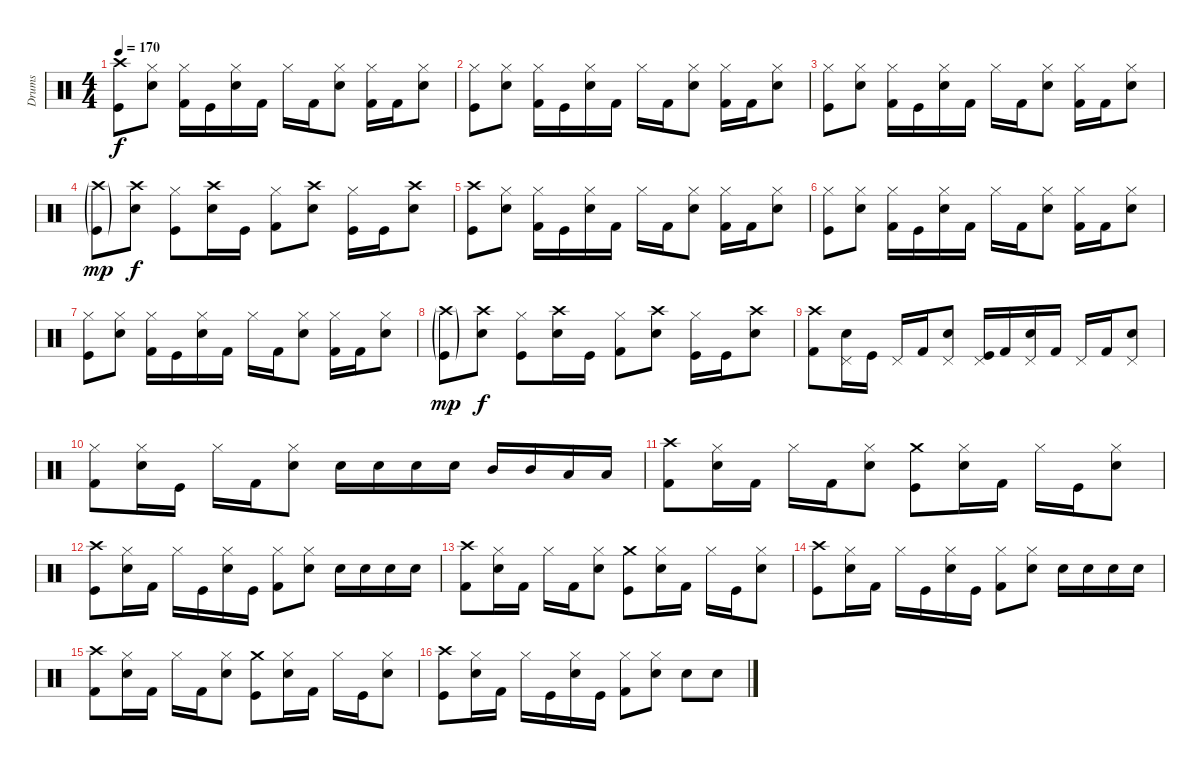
\track ("Drums" "Drums") {instrument percussion}
\staff {score}
\articulation defaults
\ts (4 4)
\tempo 170
\clef neutral
\ks c
("Crash high (hit)" "Kick (hit)").8{dy f} ("Hi-Hat (closed)" "Electric Snare (hit)").8 ("Hi-Hat (closed)" "Kick (hit) 2").16 "Kick (hit)".16 ("Hi-Hat (closed)" "Electric Snare (hit)").16 "Kick (hit) 2".16 "Hi-Hat (closed)".16 "Kick (hit) 2".16 ("Hi-Hat (closed)" "Electric Snare (hit)").8 ("Hi-Hat (closed)" "Kick (hit) 2").16 "Kick (hit) 2".16 ("Hi-Hat (closed)" "Electric Snare (hit)").8 |
("Hi-Hat (closed)" "Kick (hit)").8 ("Hi-Hat (closed)" "Electric Snare (hit)").8 ("Hi-Hat (closed)" "Kick (hit) 2").16 "Kick (hit)".16 ("Hi-Hat (closed)" "Electric Snare (hit)").16 "Kick (hit) 2".16 "Hi-Hat (closed)".16 "Kick (hit) 2".16 ("Hi-Hat (closed)" "Electric Snare (hit)").8 ("Hi-Hat (closed)" "Kick (hit) 2").16 "Kick (hit) 2".16 ("Hi-Hat (closed)" "Electric Snare (hit)").8 |
("Hi-Hat (closed)" "Kick (hit)").8 ("Hi-Hat (closed)" "Electric Snare (hit)").8 ("Hi-Hat (closed)" "Kick (hit) 2").16 "Kick (hit)".16 ("Hi-Hat (closed)" "Electric Snare (hit)").16 "Kick (hit) 2".16 "Hi-Hat (closed)".16 "Kick (hit) 2".16 ("Hi-Hat (closed)" "Electric Snare (hit)").8 ("Hi-Hat (closed)" "Kick (hit) 2").16 "Kick (hit) 2".16 ("Hi-Hat (closed)" "Electric Snare (hit)").8 |
("Crash high (hit)"{g} "Kick (hit)"{g}).8{dy mp} ("Crash high (hit)" "Electric Snare (hit)").8{dy f} ("Hi-Hat (closed)" "Kick (hit)").8 ("Crash high (hit)" "Electric Snare (hit)").16 "Kick (hit)".16 ("Hi-Hat (closed)" "Kick (hit) 2").8 ("Crash high (hit)" "Electric Snare (hit)").8 ("Hi-Hat (closed)" "Kick (hit)").16 "Kick (hit)".16 ("Crash high (hit)" "Electric Snare (hit)").8 |
("Crash high (hit)" "Kick (hit)").8 ("Hi-Hat (closed)" "Electric Snare (hit)").8 ("Hi-Hat (closed)" "Kick (hit) 2").16 "Kick (hit)".16 ("Hi-Hat (closed)" "Electric Snare (hit)").16 "Kick (hit) 2".16 "Hi-Hat (closed)".16 "Kick (hit) 2".16 ("Hi-Hat (closed)" "Electric Snare (hit)").8 ("Hi-Hat (closed)" "Kick (hit) 2").16 "Kick (hit) 2".16 ("Hi-Hat (closed)" "Electric Snare (hit)").8 |
("Hi-Hat (closed)" "Kick (hit)").8 ("Hi-Hat (closed)" "Electric Snare (hit)").8 ("Hi-Hat (closed)" "Kick (hit) 2").16 "Kick (hit)".16 ("Hi-Hat (closed)" "Electric Snare (hit)").16 "Kick (hit) 2".16 "Hi-Hat (closed)".16 "Kick (hit) 2".16 ("Hi-Hat (closed)" "Electric Snare (hit)").8 ("Hi-Hat (closed)" "Kick (hit) 2").16 "Kick (hit) 2".16 ("Hi-Hat (closed)" "Electric Snare (hit)").8 |
("Hi-Hat (closed)" "Kick (hit)").8 ("Hi-Hat (closed)" "Electric Snare (hit)").8 ("Hi-Hat (closed)" "Kick (hit) 2").16 "Kick (hit)".16 ("Hi-Hat (closed)" "Electric Snare (hit)").16 "Kick (hit) 2".16 "Hi-Hat (closed)".16 "Kick (hit) 2".16 ("Hi-Hat (closed)" "Electric Snare (hit)").8 ("Hi-Hat (closed)" "Kick (hit) 2").16 "Kick (hit) 2".16 ("Hi-Hat (closed)" "Electric Snare (hit)").8 |
("Crash high (hit)"{g} "Kick (hit)"{g}).8{dy mp} ("Crash high (hit)" "Electric Snare (hit)").8{dy f} ("Hi-Hat (closed)" "Kick (hit)").8 ("Crash high (hit)" "Electric Snare (hit)").16 "Kick (hit)".16 ("Hi-Hat (closed)" "Kick (hit) 2").8 ("Crash high (hit)" "Electric Snare (hit)").8 ("Hi-Hat (closed)" "Kick (hit)").16 "Kick (hit)".16 ("Crash high (hit)" "Electric Snare (hit)").8 |
("Crash high (hit)" "Kick (hit) 2").8 ("Pedal Hi-Hat (hit)" "Electric Snare (hit)").16 "Kick (hit)".16 "Pedal Hi-Hat (hit)".16 "Kick (hit) 2".16 ("Pedal Hi-Hat (hit)" "Electric Snare (hit)").8 ("Pedal Hi-Hat (hit)" "Kick (hit)").16 "Kick (hit) 2".16 ("Pedal Hi-Hat (hit)" "Electric Snare (hit)").16 "Kick (hit) 2".16 "Pedal Hi-Hat (hit)".16 "Kick (hit) 2".16 ("Pedal Hi-Hat (hit)" "Electric Snare (hit)").8 |
("Hi-Hat (closed)" "Kick (hit) 2").8 ("Hi-Hat (closed)" "Electric Snare (hit)").16 "Kick (hit)".16 "Hi-Hat (closed)".16 "Kick (hit) 2".16 ("Hi-Hat (closed)" "Electric Snare (hit)").8 "Electric Snare (hit)".16 "Electric Snare (hit)".16 "Electric Snare (hit)".16 "Electric Snare (hit)".16 "Mid Tom (hit)".16 "Mid Tom (hit)".16 "Low Tom (hit)".16 "Low Tom (hit)".16 |
("Crash high (hit)" "Kick (hit) 2").8 ("Hi-Hat (closed)" "Electric Snare (hit)").16 "Kick (hit) 2".16 "Hi-Hat (closed)".16 "Kick (hit) 2".16 ("Hi-Hat (closed)" "Electric Snare (hit)").8 ("Crash medium (hit)" "Kick (hit)").8 ("Hi-Hat (closed)" "Electric Snare (hit)").16 "Kick (hit) 2".16 "Hi-Hat (closed)".16 "Kick (hit)".16 ("Hi-Hat (closed)" "Electric Snare (hit)").8 |
("Crash high (hit)" "Kick (hit)").8 ("Hi-Hat (closed)" "Electric Snare (hit)").16 "Kick (hit) 2".16 "Hi-Hat (closed)".16 "Kick (hit)".16 ("Hi-Hat (closed)" "Electric Snare (hit)").16 "Kick (hit)".16 ("Hi-Hat (closed)" "Kick (hit) 2").8 ("Hi-Hat (closed)" "Electric Snare (hit)").8 "Electric Snare (hit)".16 "Electric Snare (hit)".16 "Electric Snare (hit)".16 "Electric Snare (hit)".16 |
("Crash high (hit)" "Kick (hit) 2").8 ("Hi-Hat (closed)" "Electric Snare (hit)").16 "Kick (hit) 2".16 "Hi-Hat (closed)".16 "Kick (hit) 2".16 ("Hi-Hat (closed)" "Electric Snare (hit)").8 ("Crash medium (hit)" "Kick (hit)").8 ("Hi-Hat (closed)" "Electric Snare (hit)").16 "Kick (hit) 2".16 "Hi-Hat (closed)".16 "Kick (hit)".16 ("Hi-Hat (closed)" "Electric Snare (hit)").8 |
("Crash high (hit)" "Kick (hit)").8 ("Hi-Hat (closed)" "Electric Snare (hit)").16 "Kick (hit) 2".16 "Hi-Hat (closed)".16 "Kick (hit)".16 ("Hi-Hat (closed)" "Electric Snare (hit)").16 "Kick (hit)".16 ("Hi-Hat (closed)" "Kick (hit) 2").8 ("Hi-Hat (closed)" "Electric Snare (hit)").8 "Electric Snare (hit)".16 "Electric Snare (hit)".16 "Electric Snare (hit)".16 "Electric Snare (hit)".16 |
("Crash high (hit)" "Kick (hit) 2").8 ("Hi-Hat (closed)" "Electric Snare (hit)").16 "Kick (hit) 2".16 "Hi-Hat (closed)".16 "Kick (hit) 2".16 ("Hi-Hat (closed)" "Electric Snare (hit)").8 ("Crash medium (hit)" "Kick (hit)").8 ("Hi-Hat (closed)" "Electric Snare (hit)").16 "Kick (hit) 2".16 "Hi-Hat (closed)".16 "Kick (hit)".16 ("Hi-Hat (closed)" "Electric Snare (hit)").8 |
("Crash high (hit)" "Kick (hit)").8 ("Hi-Hat (closed)" "Electric Snare (hit)").16 "Kick (hit) 2".16 "Hi-Hat (closed)".16 "Kick (hit)".16 ("Hi-Hat (closed)" "Electric Snare (hit)").16 "Kick (hit)".16 ("Hi-Hat (closed)" "Kick (hit) 2").8 ("Hi-Hat (closed)" "Electric Snare (hit)").8 "Electric Snare (hit)".8 "Electric Snare (hit)".8
